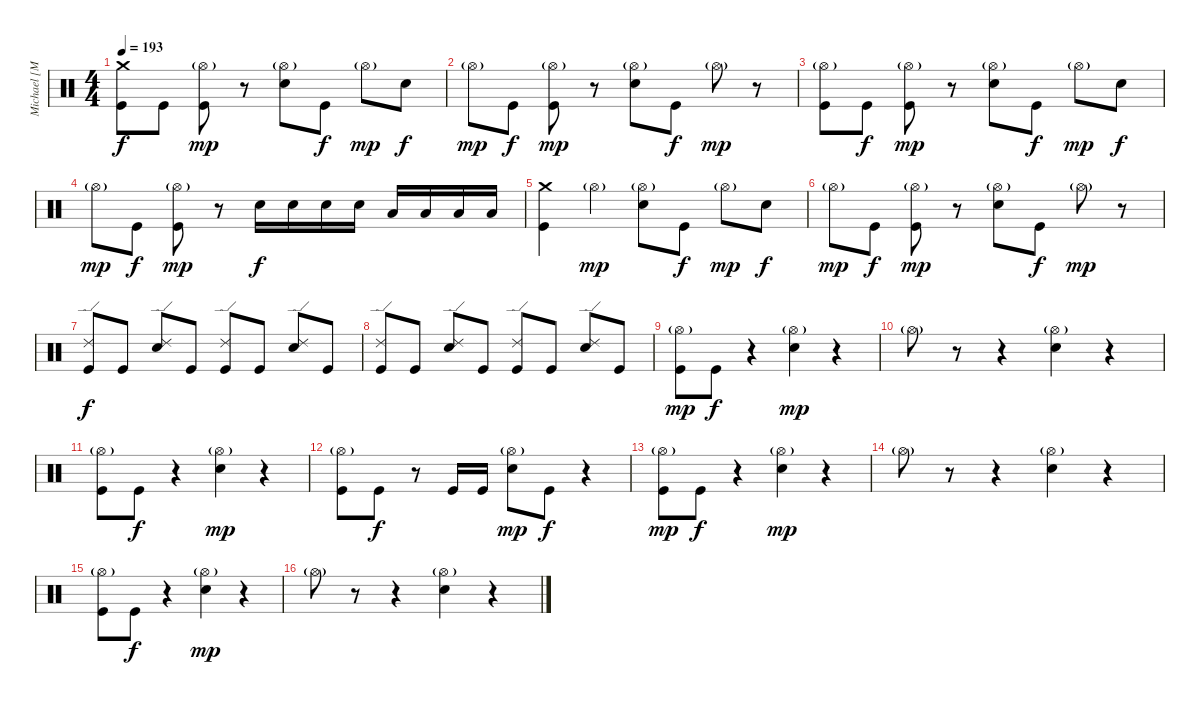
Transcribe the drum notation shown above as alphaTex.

\track ("Michael [Moose] Thomas" "Michael [M") {instrument percussion}
\staff {score}
\articulation defaults
\ts (4 4)
\tempo 193
\clef neutral
\ks c
("Crash medium (hit)" "Kick (hit)").8{dy f} "Kick (hit)".8 ("Hi-Hat (open)"{g} "Kick (hit)").8{dy mp} r.8 ("Hi-Hat (open)"{g} "Snare (hit) 2").8 "Kick (hit)".8{dy f} "Hi-Hat (open)"{g}.8{dy mp} "Snare (hit) 2".8{dy f} |
"Hi-Hat (open)"{g}.8{dy mp} "Kick (hit)".8{dy f} ("Hi-Hat (open)"{g} "Kick (hit)").8{dy mp} r.8 ("Hi-Hat (open)"{g} "Snare (hit) 2").8 "Kick (hit)".8{dy f} "Hi-Hat (open)"{g}.8{dy mp} r.8 |
("Hi-Hat (open)"{g} "Kick (hit)").8 "Kick (hit)".8{dy f} ("Hi-Hat (open)"{g} "Kick (hit)").8{dy mp} r.8 ("Hi-Hat (open)"{g} "Snare (hit) 2").8 "Kick (hit)".8{dy f} "Hi-Hat (open)"{g}.8{dy mp} "Snare (hit) 2".8{dy f} |
"Hi-Hat (open)"{g}.8{dy mp} "Kick (hit)".8{dy f} ("Hi-Hat (open)"{g} "Kick (hit)").8{dy mp} r.8 "Snare (hit) 2".16{dy f} "Snare (hit) 2".16 "Snare (hit) 2".16 "Snare (hit) 2".16 "Low Tom (hit)".16 "Low Tom (hit)".16 "Low Floor Tom (hit)".16 "Low Floor Tom (hit)".16 |
("Crash medium (hit)" "Kick (hit)").4 "Hi-Hat (open)"{g}.4{dy mp} ("Hi-Hat (open)"{g} "Snare (hit) 2").8 "Kick (hit)".8{dy f} "Hi-Hat (open)"{g}.8{dy mp} "Snare (hit) 2".8{dy f} |
"Hi-Hat (open)"{g}.8{dy mp} "Kick (hit)".8{dy f} ("Hi-Hat (open)"{g} "Kick (hit)").8{dy mp} r.8 ("Hi-Hat (open)"{g} "Snare (hit) 2").8 "Kick (hit)".8{dy f} "Hi-Hat (open)"{g}.8{dy mp} r.8 |
("Ride (edge) 2" "Kick (hit)").8{dy f} "Kick (hit)".8 ("Ride (edge) 2" "Snare (hit) 2").8 "Kick (hit)".8 ("Ride (edge) 2" "Kick (hit)").8 "Kick (hit)".8 ("Ride (edge) 2" "Snare (hit) 2").8 "Kick (hit)".8 |
("Ride (edge) 2" "Kick (hit)").8 "Kick (hit)".8 ("Ride (edge) 2" "Snare (hit) 2").8 "Kick (hit)".8 ("Ride (edge) 2" "Kick (hit)").8 "Kick (hit)".8 ("Ride (edge) 2" "Snare (hit) 2").8 "Kick (hit)".8 |
("Hi-Hat (open)"{g} "Kick (hit)").8{dy mp} "Kick (hit)".8{dy f} r.4 ("Hi-Hat (open)"{g} "Snare (hit) 2").4{dy mp} r.4 |
"Hi-Hat (open)"{g}.8 r.8 r.4 ("Hi-Hat (open)"{g} "Snare (hit) 2").4 r.4 |
("Hi-Hat (open)"{g} "Kick (hit)").8 "Kick (hit)".8{dy f} r.4 ("Hi-Hat (open)"{g} "Snare (hit) 2").4{dy mp} r.4 |
("Hi-Hat (open)"{g} "Kick (hit)").8 "Kick (hit)".8{dy f} r.8 "Kick (hit)".16 "Kick (hit)".16 ("Hi-Hat (open)"{g} "Snare (hit) 2").8{dy mp} "Kick (hit)".8{dy f} r.4 |
("Hi-Hat (open)"{g} "Kick (hit)").8{dy mp} "Kick (hit)".8{dy f} r.4 ("Hi-Hat (open)"{g} "Snare (hit) 2").4{dy mp} r.4 |
"Hi-Hat (open)"{g}.8 r.8 r.4 ("Hi-Hat (open)"{g} "Snare (hit) 2").4 r.4 |
("Hi-Hat (open)"{g} "Kick (hit)").8 "Kick (hit)".8{dy f} r.4 ("Hi-Hat (open)"{g} "Snare (hit) 2").4{dy mp} r.4 |
"Hi-Hat (open)"{g}.8 r.8 r.4 ("Hi-Hat (open)"{g} "Snare (hit) 2").4 r.4
